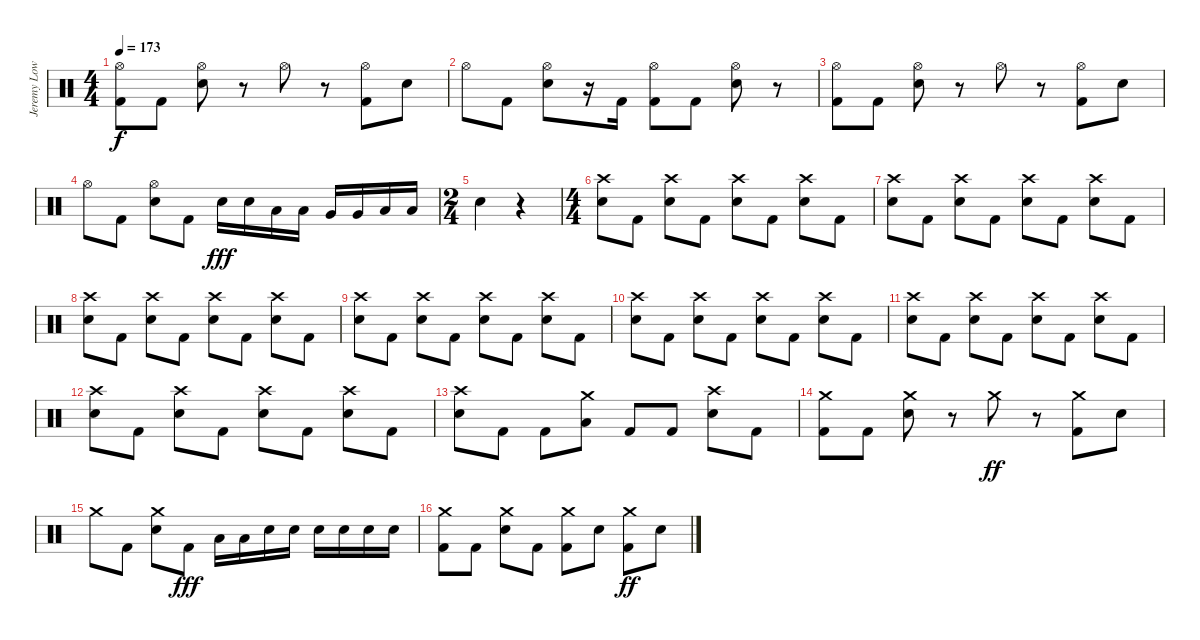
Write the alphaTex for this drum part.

\track ("Jeremy Lowery" "Jeremy Low") {instrument percussion}
\staff {score}
\articulation defaults
\ts (4 4)
\tempo 173
\clef neutral
\ks c
("Hi-Hat (open)" "Kick (hit) 2").8{dy f} "Kick (hit) 2".8 ("Hi-Hat (open)" "Snare (hit) 2").8 r.8 "Hi-Hat (open)".8 r.8 ("Hi-Hat (open)" "Kick (hit) 2").8 "Snare (hit) 2".8 |
"Hi-Hat (open)".8 "Kick (hit) 2".8 ("Hi-Hat (open)" "Snare (hit) 2").8 r.16 "Kick (hit) 2".16 ("Hi-Hat (open)" "Kick (hit) 2").8 "Kick (hit) 2".8 ("Hi-Hat (open)" "Snare (hit) 2").8 r.8 |
("Hi-Hat (open)" "Kick (hit) 2").8 "Kick (hit) 2".8 ("Hi-Hat (open)" "Snare (hit) 2").8 r.8 "Hi-Hat (open)".8 r.8 ("Hi-Hat (open)" "Kick (hit) 2").8 "Snare (hit) 2".8 |
"Hi-Hat (open)".8 "Kick (hit) 2".8 ("Hi-Hat (open)" "Snare (hit) 2").8 "Kick (hit) 2".8 "Electric Snare (hit)".16{dy fff} "Electric Snare (hit)".16 "Low Tom (hit)".16 "Low Tom (hit)".16 "Very Low Tom (hit)".16 "Very Low Tom (hit)".16 "Low Floor Tom (hit)".16 "Low Floor Tom (hit)".16 |
\ts (2 4)
"Electric Snare (hit)".4 r.4 |
\ts (4 4)
("Crash high (hit)" "Electric Snare (hit)").8 "Kick (hit) 2".8 ("Crash high (hit)" "Electric Snare (hit)").8 "Kick (hit) 2".8 ("Crash high (hit)" "Electric Snare (hit)").8 "Kick (hit) 2".8 ("Crash high (hit)" "Electric Snare (hit)").8 "Kick (hit) 2".8 |
("Crash high (hit)" "Electric Snare (hit)").8 "Kick (hit) 2".8 ("Crash high (hit)" "Electric Snare (hit)").8 "Kick (hit) 2".8 ("Crash high (hit)" "Electric Snare (hit)").8 "Kick (hit) 2".8 ("Crash high (hit)" "Electric Snare (hit)").8 "Kick (hit) 2".8 |
("Crash high (hit)" "Electric Snare (hit)").8 "Kick (hit) 2".8 ("Crash high (hit)" "Electric Snare (hit)").8 "Kick (hit) 2".8 ("Crash high (hit)" "Electric Snare (hit)").8 "Kick (hit) 2".8 ("Crash high (hit)" "Electric Snare (hit)").8 "Kick (hit) 2".8 |
("Crash high (hit)" "Electric Snare (hit)").8 "Kick (hit) 2".8 ("Crash high (hit)" "Electric Snare (hit)").8 "Kick (hit) 2".8 ("Crash high (hit)" "Electric Snare (hit)").8 "Kick (hit) 2".8 ("Crash high (hit)" "Electric Snare (hit)").8 "Kick (hit) 2".8 |
("Crash high (hit)" "Electric Snare (hit)").8 "Kick (hit) 2".8 ("Crash high (hit)" "Electric Snare (hit)").8 "Kick (hit) 2".8 ("Crash high (hit)" "Electric Snare (hit)").8 "Kick (hit) 2".8 ("Crash high (hit)" "Electric Snare (hit)").8 "Kick (hit) 2".8 |
("Crash high (hit)" "Electric Snare (hit)").8 "Kick (hit) 2".8 ("Crash high (hit)" "Electric Snare (hit)").8 "Kick (hit) 2".8 ("Crash high (hit)" "Electric Snare (hit)").8 "Kick (hit) 2".8 ("Crash high (hit)" "Electric Snare (hit)").8 "Kick (hit) 2".8 |
("Crash high (hit)" "Electric Snare (hit)").8 "Kick (hit) 2".8 ("Crash high (hit)" "Electric Snare (hit)").8 "Kick (hit) 2".8 ("Crash high (hit)" "Electric Snare (hit)").8 "Kick (hit) 2".8 ("Crash high (hit)" "Electric Snare (hit)").8 "Kick (hit) 2".8 |
("Crash high (hit)" "Electric Snare (hit)").8 "Kick (hit) 2".8 "Kick (hit) 2".8 ("Crash medium (hit)" "Low Floor Tom (hit)").8 "Kick (hit) 2".8 "Kick (hit) 2".8 ("Crash high (hit)" "Electric Snare (hit)").8 "Kick (hit) 2".8 |
("Crash medium (hit)" "Kick (hit) 2").8 "Kick (hit) 2".8 ("Crash medium (hit)" "Electric Snare (hit)").8 r.8 "Crash medium (hit)".8{dy ff} r.8 ("Crash medium (hit)" "Kick (hit) 2").8 "Electric Snare (hit)".8 |
"Crash medium (hit)".8 "Kick (hit) 2".8 ("Crash medium (hit)" "Electric Snare (hit)").8 "Kick (hit) 2".8{dy fff} "Low Tom (hit)".16 "Low Tom (hit)".16 "Electric Snare (hit)".16 "Electric Snare (hit)".16 "Electric Snare (hit)".16 "Electric Snare (hit)".16 "Electric Snare (hit)".16 "Electric Snare (hit)".16 |
("Crash medium (hit)" "Kick (hit) 2").8 "Kick (hit) 2".8 ("Crash medium (hit)" "Electric Snare (hit)").8 "Kick (hit) 2".8 ("Crash medium (hit)" "Kick (hit) 2").8 "Electric Snare (hit)".8 ("Crash medium (hit)" "Kick (hit) 2").8{dy ff} "Electric Snare (hit)".8
